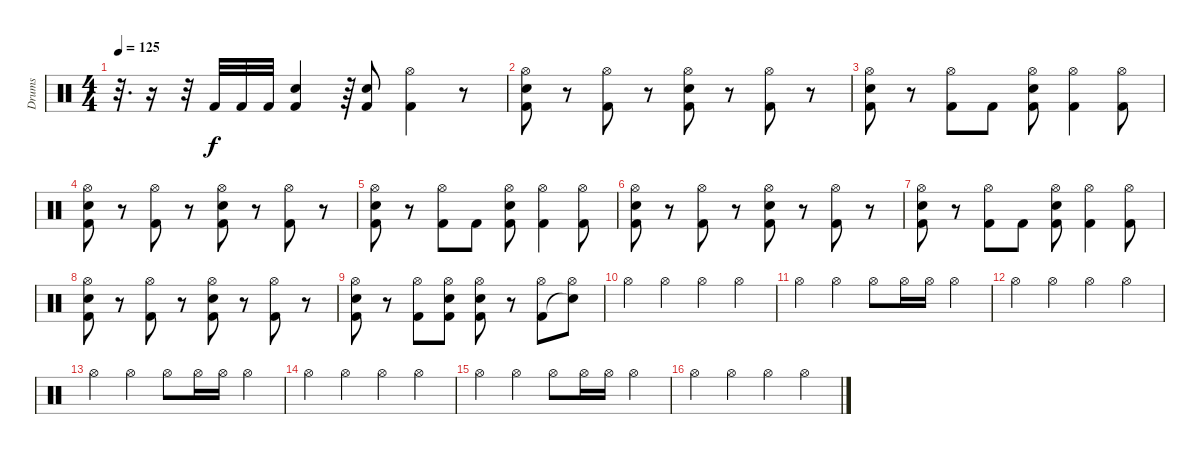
\track ("Drums" "Drums") {instrument percussion}
\staff {score}
\articulation defaults
\ts (4 4)
\tempo 125
\clef neutral
\ks c
r.32{d dy f} r.16 r.32 "Kick (hit) 2".32 "Kick (hit) 2".32 "Kick (hit) 2".32 ("Kick (hit) 2" "Snare (hit) 2").4 r.64 ("Kick (hit) 2" "Snare (hit) 2").8 ("Kick (hit) 2" "Hi-Hat (open)").4 r.8 |
("Kick (hit) 2" "Snare (hit) 2" "Hi-Hat (open)").8 r.8 ("Kick (hit) 2" "Hi-Hat (open)").8 r.8 ("Kick (hit) 2" "Snare (hit) 2" "Hi-Hat (open)").8 r.8 ("Kick (hit) 2" "Hi-Hat (open)").8 r.8 |
("Kick (hit) 2" "Snare (hit) 2" "Hi-Hat (open)").8 r.8 ("Kick (hit) 2" "Hi-Hat (open)").8 "Kick (hit) 2".8 ("Kick (hit) 2" "Snare (hit) 2" "Hi-Hat (open)").8 ("Kick (hit) 2" "Hi-Hat (open)").4 ("Kick (hit) 2" "Hi-Hat (open)").8 |
("Kick (hit) 2" "Snare (hit) 2" "Hi-Hat (open)").8 r.8 ("Kick (hit) 2" "Hi-Hat (open)").8 r.8 ("Kick (hit) 2" "Snare (hit) 2" "Hi-Hat (open)").8 r.8 ("Kick (hit) 2" "Hi-Hat (open)").8 r.8 |
("Kick (hit) 2" "Snare (hit) 2" "Hi-Hat (open)").8 r.8 ("Kick (hit) 2" "Hi-Hat (open)").8 "Kick (hit) 2".8 ("Kick (hit) 2" "Snare (hit) 2" "Hi-Hat (open)").8 ("Kick (hit) 2" "Hi-Hat (open)").4 ("Kick (hit) 2" "Hi-Hat (open)").8 |
("Kick (hit) 2" "Snare (hit) 2" "Hi-Hat (open)").8 r.8 ("Kick (hit) 2" "Hi-Hat (open)").8 r.8 ("Kick (hit) 2" "Snare (hit) 2" "Hi-Hat (open)").8 r.8 ("Kick (hit) 2" "Hi-Hat (open)").8 r.8 |
("Kick (hit) 2" "Snare (hit) 2" "Hi-Hat (open)").8 r.8 ("Kick (hit) 2" "Hi-Hat (open)").8 "Kick (hit) 2".8 ("Kick (hit) 2" "Snare (hit) 2" "Hi-Hat (open)").8 ("Kick (hit) 2" "Hi-Hat (open)").4 ("Kick (hit) 2" "Hi-Hat (open)").8 |
("Kick (hit) 2" "Snare (hit) 2" "Hi-Hat (open)").8 r.8 ("Kick (hit) 2" "Hi-Hat (open)").8 r.8 ("Kick (hit) 2" "Snare (hit) 2" "Hi-Hat (open)").8 r.8 ("Kick (hit) 2" "Hi-Hat (open)").8 r.8 |
("Kick (hit) 2" "Snare (hit) 2" "Hi-Hat (open)").8 r.8 ("Kick (hit) 2" "Hi-Hat (open)").8 ("Kick (hit) 2" "Snare (hit) 2" "Hi-Hat (open)").8 ("Kick (hit) 2" "Snare (hit) 2" "Hi-Hat (open)").8 r.8 ("Kick (hit) 2" "Hi-Hat (open)").8 ("Snare (hit)"{t} "Hi-Hat (open)").8 |
"Hi-Hat (open)".4 "Hi-Hat (open)".4 "Hi-Hat (open)".4 "Hi-Hat (open)".4 |
"Hi-Hat (open)".4 "Hi-Hat (open)".4 "Hi-Hat (open)".8 "Hi-Hat (open)".16 "Hi-Hat (open)".16 "Hi-Hat (open)".4 |
"Hi-Hat (open)".4 "Hi-Hat (open)".4 "Hi-Hat (open)".4 "Hi-Hat (open)".4 |
"Hi-Hat (open)".4 "Hi-Hat (open)".4 "Hi-Hat (open)".8 "Hi-Hat (open)".16 "Hi-Hat (open)".16 "Hi-Hat (open)".4 |
"Hi-Hat (open)".4 "Hi-Hat (open)".4 "Hi-Hat (open)".4 "Hi-Hat (open)".4 |
"Hi-Hat (open)".4 "Hi-Hat (open)".4 "Hi-Hat (open)".8 "Hi-Hat (open)".16 "Hi-Hat (open)".16 "Hi-Hat (open)".4 |
"Hi-Hat (open)".4 "Hi-Hat (open)".4 "Hi-Hat (open)".4 "Hi-Hat (open)".4
